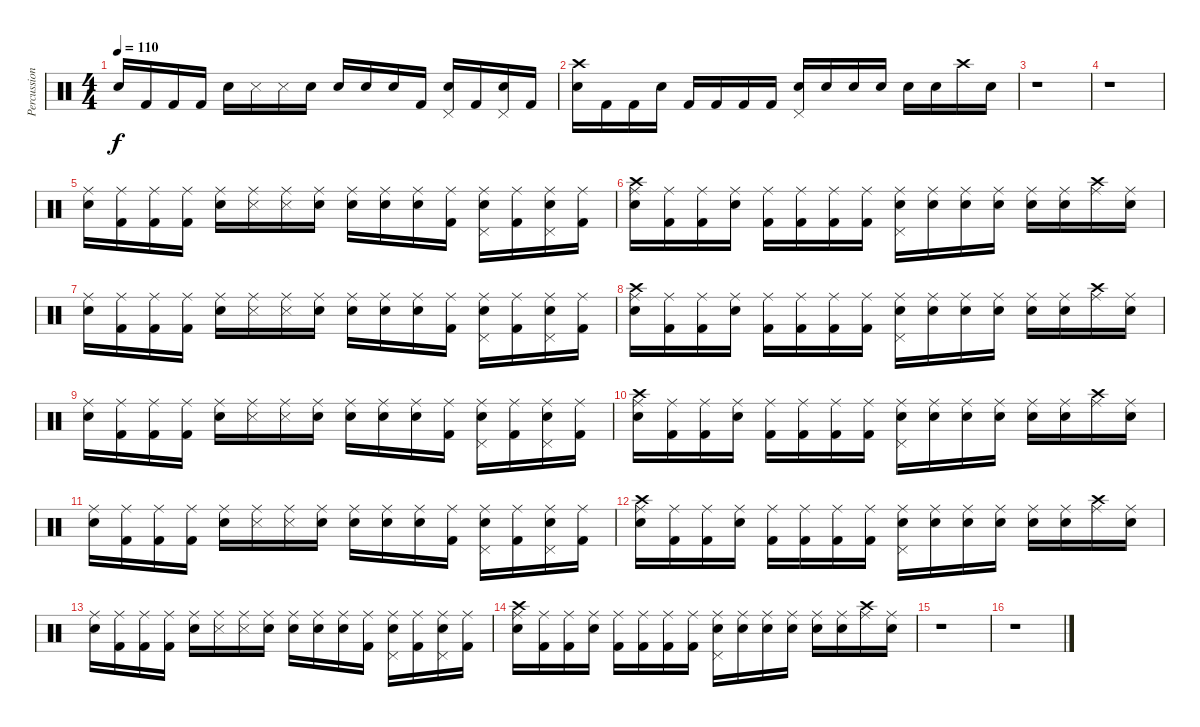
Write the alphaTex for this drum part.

\track ("Percussions" "Percussion") {instrument percussion}
\staff {score}
\articulation defaults
\ts (4 4)
\tempo 110
\clef neutral
\ks c "Electric Snare (hit)".16{dy f} "Kick (hit) 2".16 "Kick (hit) 2".16 "Kick (hit) 2".16 "Electric Snare (hit)".16 "Snare (side stick) 3".16 "Snare (side stick) 3".16 "Snare (hit) 2".16 "Electric Snare (hit)".16 "Snare (hit) 2".16 "Electric Snare (hit)".16 "Kick (hit) 2".16
("Pedal Hi-Hat (hit)" "Snare (hit) 2").16 "Kick (hit) 2".16 ("Pedal Hi-Hat (hit)" "Snare (hit) 2").16 "Kick (hit) 2".16 |
("Crash high (hit)" "Electric Snare (hit)").16 "Kick (hit) 2".16 "Kick (hit) 2".16 "Electric Snare (hit)".16 "Kick (hit) 2".16 "Kick (hit) 2".16 "Kick (hit) 2".16 "Kick (hit) 2".16 ("Pedal Hi-Hat (hit)" "Electric Snare (hit)").16 "Snare (hit) 2".16 "Snare (hit) 2".16 "Electric Snare (hit)".16 "Snare (hit) 2".16 "Snare (hit) 2".16 "Crash high (hit)".16 "Electric Snare (hit)".16 |
r.1 |
r.1 |
("Ride (middle)" "Electric Snare (hit)").16 ("Ride (middle)" "Kick (hit) 2").16 ("Ride (middle)" "Kick (hit) 2").16 ("Ride (middle)" "Kick (hit) 2").16 ("Ride (middle)" "Electric Snare (hit)").16 ("Ride (middle)" "Snare (side stick) 3").16 ("Ride (middle)" "Snare (side stick) 3").16 ("Ride (middle)" "Snare (hit) 2").16 ("Ride (middle)" "Electric Snare (hit)").16 ("Ride (middle)" "Snare (hit) 2").16 ("Ride (middle)" "Electric Snare (hit)").16 ("Ride (middle)" "Kick (hit) 2").16 ("Ride (middle)" "Pedal Hi-Hat (hit)" "Snare (hit) 2").16 ("Ride (middle)" "Kick (hit) 2").16 ("Ride (middle)" "Pedal Hi-Hat (hit)" "Snare (hit) 2").16 ("Ride (middle)" "Kick (hit) 2").16 |
("Ride (middle)" "Crash high (hit)" "Electric Snare (hit)").16 ("Ride (middle)" "Kick (hit) 2").16 ("Ride (middle)" "Kick (hit) 2").16 ("Ride (middle)" "Electric Snare (hit)").16 ("Ride (middle)" "Kick (hit) 2").16 ("Ride (middle)" "Kick (hit) 2").16 ("Ride (middle)" "Kick (hit) 2").16 ("Ride (middle)" "Kick (hit) 2").16 ("Ride (middle)" "Pedal Hi-Hat (hit)" "Electric Snare (hit)").16 ("Ride (middle)" "Snare (hit) 2").16 ("Ride (middle)" "Snare (hit) 2").16 ("Ride (middle)" "Electric Snare (hit)").16 ("Ride (middle)" "Snare (hit) 2").16 ("Ride (middle)" "Snare (hit) 2").16 ("Ride (middle)" "Crash high (hit)").16 ("Ride (middle)" "Electric Snare (hit)").16 |
("Ride (middle)" "Electric Snare (hit)").16 ("Ride (middle)" "Kick (hit) 2").16 ("Ride (middle)" "Kick (hit) 2").16 ("Ride (middle)" "Kick (hit) 2").16 ("Ride (middle)" "Electric Snare (hit)").16 ("Ride (middle)" "Snare (side stick) 3").16 ("Ride (middle)" "Snare (side stick) 3").16 ("Ride (middle)" "Snare (hit) 2").16 ("Ride (middle)" "Electric Snare (hit)").16 ("Ride (middle)" "Snare (hit) 2").16 ("Ride (middle)" "Electric Snare (hit)").16 ("Ride (middle)" "Kick (hit) 2").16 ("Ride (middle)" "Pedal Hi-Hat (hit)" "Snare (hit) 2").16 ("Ride (middle)" "Kick (hit) 2").16 ("Ride (middle)" "Pedal Hi-Hat (hit)" "Snare (hit) 2").16 ("Ride (middle)" "Kick (hit) 2").16 |
("Ride (middle)" "Crash high (hit)" "Electric Snare (hit)").16 ("Ride (middle)" "Kick (hit) 2").16 ("Ride (middle)" "Kick (hit) 2").16 ("Ride (middle)" "Electric Snare (hit)").16 ("Ride (middle)" "Kick (hit) 2").16 ("Ride (middle)" "Kick (hit) 2").16 ("Ride (middle)" "Kick (hit) 2").16 ("Ride (middle)" "Kick (hit) 2").16 ("Ride (middle)" "Pedal Hi-Hat (hit)" "Electric Snare (hit)").16 ("Ride (middle)" "Snare (hit) 2").16 ("Ride (middle)" "Snare (hit) 2").16 ("Ride (middle)" "Electric Snare (hit)").16 ("Ride (middle)" "Snare (hit) 2").16 ("Ride (middle)" "Snare (hit) 2").16 ("Ride (middle)" "Crash high (hit)").16 ("Ride (middle)" "Electric Snare (hit)").16 |
("Ride (middle)" "Electric Snare (hit)").16 ("Ride (middle)" "Kick (hit) 2").16 ("Ride (middle)" "Kick (hit) 2").16 ("Ride (middle)" "Kick (hit) 2").16 ("Ride (middle)" "Electric Snare (hit)").16 ("Ride (middle)" "Snare (side stick) 3").16 ("Ride (middle)" "Snare (side stick) 3").16 ("Ride (middle)" "Snare (hit) 2").16 ("Ride (middle)" "Electric Snare (hit)").16 ("Ride (middle)" "Snare (hit) 2").16 ("Ride (middle)" "Electric Snare (hit)").16 ("Ride (middle)" "Kick (hit) 2").16 ("Ride (middle)" "Pedal Hi-Hat (hit)" "Snare (hit) 2").16 ("Ride (middle)" "Kick (hit) 2").16 ("Ride (middle)" "Pedal Hi-Hat (hit)" "Snare (hit) 2").16 ("Ride (middle)" "Kick (hit) 2").16 |
("Ride (middle)" "Crash high (hit)" "Electric Snare (hit)").16 ("Ride (middle)" "Kick (hit) 2").16 ("Ride (middle)" "Kick (hit) 2").16 ("Ride (middle)" "Electric Snare (hit)").16 ("Ride (middle)" "Kick (hit) 2").16 ("Ride (middle)" "Kick (hit) 2").16 ("Ride (middle)" "Kick (hit) 2").16 ("Ride (middle)" "Kick (hit) 2").16 ("Ride (middle)" "Pedal Hi-Hat (hit)" "Electric Snare (hit)").16 ("Ride (middle)" "Snare (hit) 2").16 ("Ride (middle)" "Snare (hit) 2").16 ("Ride (middle)" "Electric Snare (hit)").16 ("Ride (middle)" "Snare (hit) 2").16 ("Ride (middle)" "Snare (hit) 2").16 ("Ride (middle)" "Crash high (hit)").16 ("Ride (middle)" "Electric Snare (hit)").16 |
("Ride (middle)" "Electric Snare (hit)").16 ("Ride (middle)" "Kick (hit) 2").16 ("Ride (middle)" "Kick (hit) 2").16 ("Ride (middle)" "Kick (hit) 2").16 ("Ride (middle)" "Electric Snare (hit)").16 ("Ride (middle)" "Snare (side stick) 3").16 ("Ride (middle)" "Snare (side stick) 3").16 ("Ride (middle)" "Snare (hit) 2").16 ("Ride (middle)" "Electric Snare (hit)").16 ("Ride (middle)" "Snare (hit) 2").16 ("Ride (middle)" "Electric Snare (hit)").16 ("Ride (middle)" "Kick (hit) 2").16 ("Ride (middle)" "Pedal Hi-Hat (hit)" "Snare (hit) 2").16 ("Ride (middle)" "Kick (hit) 2").16 ("Ride (middle)" "Pedal Hi-Hat (hit)" "Snare (hit) 2").16 ("Ride (middle)" "Kick (hit) 2").16 |
("Ride (middle)" "Crash high (hit)" "Electric Snare (hit)").16 ("Ride (middle)" "Kick (hit) 2").16 ("Ride (middle)" "Kick (hit) 2").16 ("Ride (middle)" "Electric Snare (hit)").16 ("Ride (middle)" "Kick (hit) 2").16 ("Ride (middle)" "Kick (hit) 2").16 ("Ride (middle)" "Kick (hit) 2").16 ("Ride (middle)" "Kick (hit) 2").16 ("Ride (middle)" "Pedal Hi-Hat (hit)" "Electric Snare (hit)").16 ("Ride (middle)" "Snare (hit) 2").16 ("Ride (middle)" "Snare (hit) 2").16 ("Ride (middle)" "Electric Snare (hit)").16 ("Ride (middle)" "Snare (hit) 2").16 ("Ride (middle)" "Snare (hit) 2").16 ("Ride (middle)" "Crash high (hit)").16 ("Ride (middle)" "Electric Snare (hit)").16 |
("Ride (middle)" "Electric Snare (hit)").16 ("Ride (middle)" "Kick (hit) 2").16 ("Ride (middle)" "Kick (hit) 2").16 ("Ride (middle)" "Kick (hit) 2").16 ("Ride (middle)" "Electric Snare (hit)").16 ("Ride (middle)" "Snare (side stick) 3").16 ("Ride (middle)" "Snare (side stick) 3").16 ("Ride (middle)" "Snare (hit) 2").16 ("Ride (middle)" "Electric Snare (hit)").16 ("Ride (middle)" "Snare (hit) 2").16 ("Ride (middle)" "Electric Snare (hit)").16 ("Ride (middle)" "Kick (hit) 2").16 ("Ride (middle)" "Pedal Hi-Hat (hit)" "Snare (hit) 2").16 ("Ride (middle)" "Kick (hit) 2").16 ("Ride (middle)" "Pedal Hi-Hat (hit)" "Snare (hit) 2").16 ("Ride (middle)" "Kick (hit) 2").16 |
("Ride (middle)" "Crash high (hit)" "Electric Snare (hit)").16 ("Ride (middle)" "Kick (hit) 2").16 ("Ride (middle)" "Kick (hit) 2").16 ("Ride (middle)" "Electric Snare (hit)").16 ("Ride (middle)" "Kick (hit) 2").16 ("Ride (middle)" "Kick (hit) 2").16 ("Ride (middle)" "Kick (hit) 2").16 ("Ride (middle)" "Kick (hit) 2").16 ("Ride (middle)" "Pedal Hi-Hat (hit)" "Electric Snare (hit)").16 ("Ride (middle)" "Snare (hit) 2").16 ("Ride (middle)" "Snare (hit) 2").16 ("Ride (middle)" "Electric Snare (hit)").16 ("Ride (middle)" "Snare (hit) 2").16 ("Ride (middle)" "Snare (hit) 2").16 ("Ride (middle)" "Crash high (hit)").16 ("Ride (middle)" "Electric Snare (hit)").16 |
r.1 |
r.1
